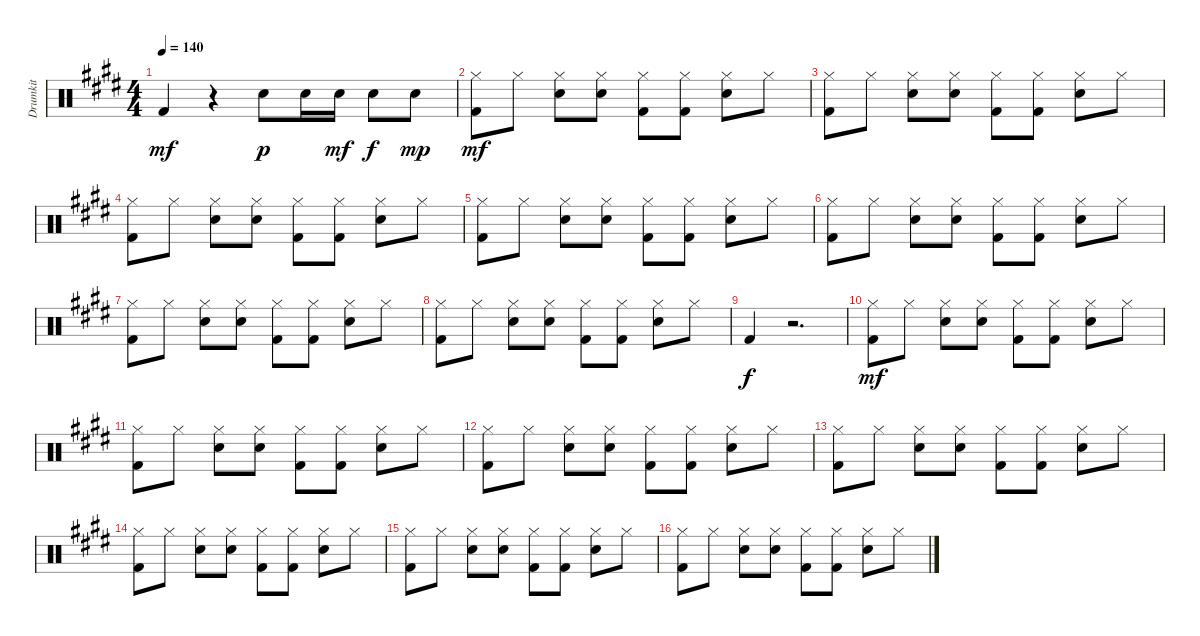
\track ("Drumkit" "Drumkit") {instrument percussion}
\staff {score}
\articulation defaults
\ts (4 4)
\tempo 140
\clef neutral
\ks e "Kick (hit) 2".4{dy mf}
r.4 "Snare (hit) 2".8{dy p} "Snare (hit) 2".16 "Snare (hit) 2".16{dy mf} "Snare (hit) 2".8{dy f} "Snare (hit) 2".8{dy mp} |
("Hi-Hat (closed)" "Kick (hit) 2").8{dy mf} "Hi-Hat (closed)".8 ("Hi-Hat (closed)" "Snare (hit) 2").8 ("Hi-Hat (closed)" "Snare (hit) 2").8 ("Hi-Hat (closed)" "Kick (hit) 2").8 ("Hi-Hat (closed)" "Kick (hit) 2").8 ("Hi-Hat (closed)" "Snare (hit) 2").8 "Hi-Hat (closed)".8 |
("Hi-Hat (closed)" "Kick (hit) 2").8 "Hi-Hat (closed)".8 ("Hi-Hat (closed)" "Snare (hit) 2").8 ("Hi-Hat (closed)" "Snare (hit) 2").8 ("Hi-Hat (closed)" "Kick (hit) 2").8 ("Hi-Hat (closed)" "Kick (hit) 2").8 ("Hi-Hat (closed)" "Snare (hit) 2").8 "Hi-Hat (closed)".8 |
("Hi-Hat (closed)" "Kick (hit) 2").8 "Hi-Hat (closed)".8 ("Hi-Hat (closed)" "Snare (hit) 2").8 ("Hi-Hat (closed)" "Snare (hit) 2").8 ("Hi-Hat (closed)" "Kick (hit) 2").8 ("Hi-Hat (closed)" "Kick (hit) 2").8 ("Hi-Hat (closed)" "Snare (hit) 2").8 "Hi-Hat (closed)".8 |
("Hi-Hat (closed)" "Kick (hit) 2").8 "Hi-Hat (closed)".8 ("Hi-Hat (closed)" "Snare (hit) 2").8 ("Hi-Hat (closed)" "Snare (hit) 2").8 ("Hi-Hat (closed)" "Kick (hit) 2").8 ("Hi-Hat (closed)" "Kick (hit) 2").8 ("Hi-Hat (closed)" "Snare (hit) 2").8 "Hi-Hat (closed)".8 |
("Hi-Hat (closed)" "Kick (hit) 2").8 "Hi-Hat (closed)".8 ("Hi-Hat (closed)" "Snare (hit) 2").8 ("Hi-Hat (closed)" "Snare (hit) 2").8 ("Hi-Hat (closed)" "Kick (hit) 2").8 ("Hi-Hat (closed)" "Kick (hit) 2").8 ("Hi-Hat (closed)" "Snare (hit) 2").8 "Hi-Hat (closed)".8 |
("Hi-Hat (closed)" "Kick (hit) 2").8 "Hi-Hat (closed)".8 ("Hi-Hat (closed)" "Snare (hit) 2").8 ("Hi-Hat (closed)" "Snare (hit) 2").8 ("Hi-Hat (closed)" "Kick (hit) 2").8 ("Hi-Hat (closed)" "Kick (hit) 2").8 ("Hi-Hat (closed)" "Snare (hit) 2").8 "Hi-Hat (closed)".8 |
("Hi-Hat (closed)" "Kick (hit) 2").8 "Hi-Hat (closed)".8 ("Hi-Hat (closed)" "Snare (hit) 2").8 ("Hi-Hat (closed)" "Snare (hit) 2").8 ("Hi-Hat (closed)" "Kick (hit) 2").8 ("Hi-Hat (closed)" "Kick (hit) 2").8 ("Hi-Hat (closed)" "Snare (hit) 2").8 "Hi-Hat (closed)".8 |
"Kick (hit) 2".4{dy f} r.2{d} |
("Hi-Hat (closed)" "Kick (hit) 2").8{dy mf} "Hi-Hat (closed)".8 ("Hi-Hat (closed)" "Snare (hit) 2").8 ("Hi-Hat (closed)" "Snare (hit) 2").8 ("Hi-Hat (closed)" "Kick (hit) 2").8 ("Hi-Hat (closed)" "Kick (hit) 2").8 ("Hi-Hat (closed)" "Snare (hit) 2").8 "Hi-Hat (closed)".8 |
("Hi-Hat (closed)" "Kick (hit) 2").8 "Hi-Hat (closed)".8 ("Hi-Hat (closed)" "Snare (hit) 2").8 ("Hi-Hat (closed)" "Snare (hit) 2").8 ("Hi-Hat (closed)" "Kick (hit) 2").8 ("Hi-Hat (closed)" "Kick (hit) 2").8 ("Hi-Hat (closed)" "Snare (hit) 2").8 "Hi-Hat (closed)".8 |
("Hi-Hat (closed)" "Kick (hit) 2").8 "Hi-Hat (closed)".8 ("Hi-Hat (closed)" "Snare (hit) 2").8 ("Hi-Hat (closed)" "Snare (hit) 2").8 ("Hi-Hat (closed)" "Kick (hit) 2").8 ("Hi-Hat (closed)" "Kick (hit) 2").8 ("Hi-Hat (closed)" "Snare (hit) 2").8 "Hi-Hat (closed)".8 |
("Hi-Hat (closed)" "Kick (hit) 2").8 "Hi-Hat (closed)".8 ("Hi-Hat (closed)" "Snare (hit) 2").8 ("Hi-Hat (closed)" "Snare (hit) 2").8 ("Hi-Hat (closed)" "Kick (hit) 2").8 ("Hi-Hat (closed)" "Kick (hit) 2").8 ("Hi-Hat (closed)" "Snare (hit) 2").8 "Hi-Hat (closed)".8 |
("Hi-Hat (closed)" "Kick (hit) 2").8 "Hi-Hat (closed)".8 ("Hi-Hat (closed)" "Snare (hit) 2").8 ("Hi-Hat (closed)" "Snare (hit) 2").8 ("Hi-Hat (closed)" "Kick (hit) 2").8 ("Hi-Hat (closed)" "Kick (hit) 2").8 ("Hi-Hat (closed)" "Snare (hit) 2").8 "Hi-Hat (closed)".8 |
("Hi-Hat (closed)" "Kick (hit) 2").8 "Hi-Hat (closed)".8 ("Hi-Hat (closed)" "Snare (hit) 2").8 ("Hi-Hat (closed)" "Snare (hit) 2").8 ("Hi-Hat (closed)" "Kick (hit) 2").8 ("Hi-Hat (closed)" "Kick (hit) 2").8 ("Hi-Hat (closed)" "Snare (hit) 2").8 "Hi-Hat (closed)".8 |
("Hi-Hat (closed)" "Kick (hit) 2").8 "Hi-Hat (closed)".8 ("Hi-Hat (closed)" "Snare (hit) 2").8 ("Hi-Hat (closed)" "Snare (hit) 2").8 ("Hi-Hat (closed)" "Kick (hit) 2").8 ("Hi-Hat (closed)" "Kick (hit) 2").8 ("Hi-Hat (closed)" "Snare (hit) 2").8 "Hi-Hat (closed)".8
